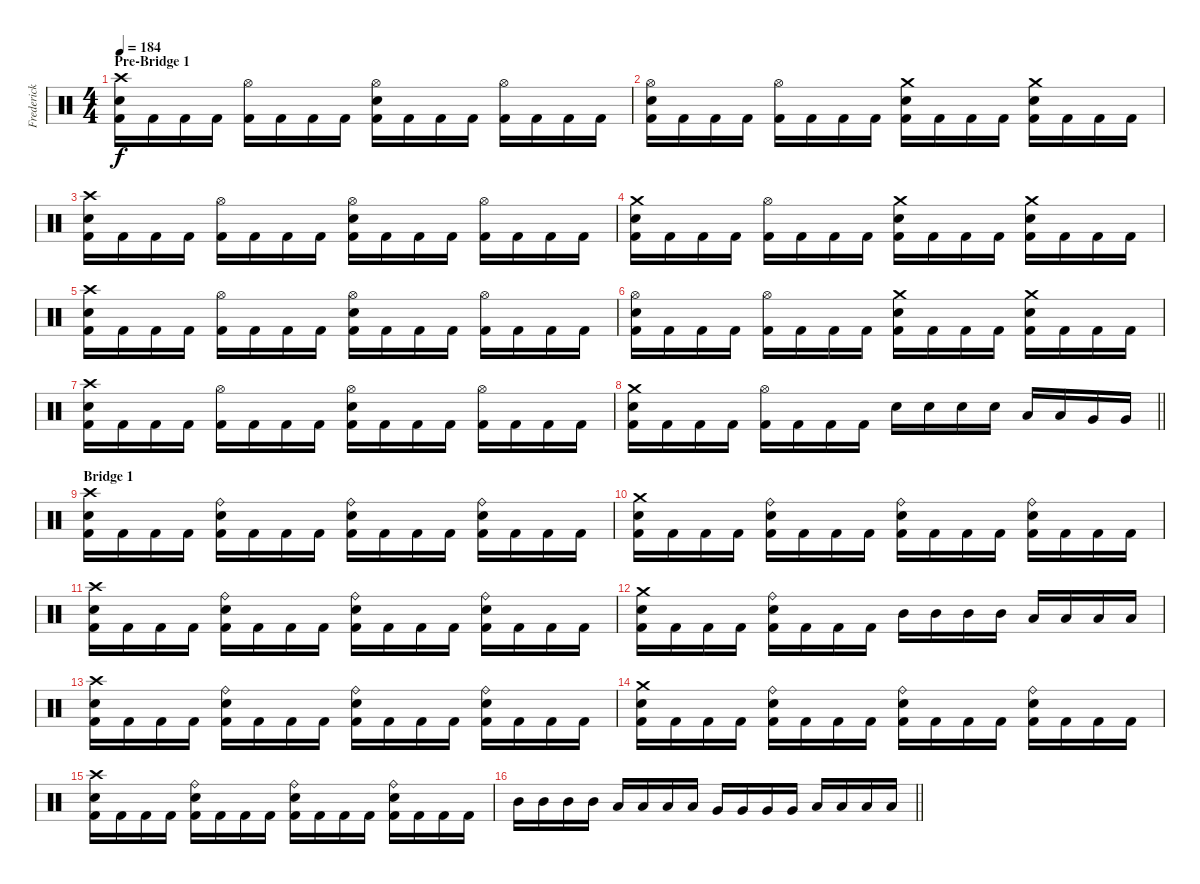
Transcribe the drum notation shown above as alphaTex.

\track ("Frederick Ehmke" "Frederick ") {instrument percussion}
\staff {score}
\articulation defaults
\ts (4 4)
\section ("" "Pre-Bridge 1")
\tempo 184
\clef neutral
\ks c
("Electric Snare (hit)" "Kick (hit) 2" "Crash high (hit)").16{dy f} "Kick (hit) 2".16 "Kick (hit) 2".16 "Kick (hit) 2".16 ("Kick (hit) 2" "Hi-Hat (open)").16 "Kick (hit) 2".16 "Kick (hit) 2".16 "Kick (hit) 2".16 ("Electric Snare (hit)" "Kick (hit) 2" "Hi-Hat (open)").16 "Kick (hit) 2".16 "Kick (hit) 2".16 "Kick (hit) 2".16 ("Kick (hit) 2" "Hi-Hat (open)").16 "Kick (hit) 2".16 "Kick (hit) 2".16 "Kick (hit) 2".16 |
("Electric Snare (hit)" "Kick (hit) 2" "Hi-Hat (open)").16 "Kick (hit) 2".16 "Kick (hit) 2".16 "Kick (hit) 2".16 ("Kick (hit) 2" "Hi-Hat (open)").16 "Kick (hit) 2".16 "Kick (hit) 2".16 "Kick (hit) 2".16 ("Electric Snare (hit)" "Kick (hit) 2" "Crash medium (hit)").16 "Kick (hit) 2".16 "Kick (hit) 2".16 "Kick (hit) 2".16 ("Electric Snare (hit)" "Kick (hit) 2" "Crash medium (hit)").16 "Kick (hit) 2".16 "Kick (hit) 2".16 "Kick (hit) 2".16 |
("Electric Snare (hit)" "Kick (hit) 2" "Crash high (hit)").16 "Kick (hit) 2".16 "Kick (hit) 2".16 "Kick (hit) 2".16 ("Kick (hit) 2" "Hi-Hat (open)").16 "Kick (hit) 2".16 "Kick (hit) 2".16 "Kick (hit) 2".16 ("Electric Snare (hit)" "Kick (hit) 2" "Hi-Hat (open)").16 "Kick (hit) 2".16 "Kick (hit) 2".16 "Kick (hit) 2".16 ("Kick (hit) 2" "Hi-Hat (open)").16 "Kick (hit) 2".16 "Kick (hit) 2".16 "Kick (hit) 2".16 |
("Electric Snare (hit)" "Kick (hit) 2" "Crash medium (hit)").16 "Kick (hit) 2".16 "Kick (hit) 2".16 "Kick (hit) 2".16 ("Kick (hit) 2" "Hi-Hat (open)").16 "Kick (hit) 2".16 "Kick (hit) 2".16 "Kick (hit) 2".16 ("Electric Snare (hit)" "Kick (hit) 2" "Crash medium (hit)").16 "Kick (hit) 2".16 "Kick (hit) 2".16 "Kick (hit) 2".16 ("Electric Snare (hit)" "Kick (hit) 2" "Crash medium (hit)").16 "Kick (hit) 2".16 "Kick (hit) 2".16 "Kick (hit) 2".16 |
("Electric Snare (hit)" "Kick (hit) 2" "Crash high (hit)").16 "Kick (hit) 2".16 "Kick (hit) 2".16 "Kick (hit) 2".16 ("Kick (hit) 2" "Hi-Hat (open)").16 "Kick (hit) 2".16 "Kick (hit) 2".16 "Kick (hit) 2".16 ("Electric Snare (hit)" "Kick (hit) 2" "Hi-Hat (open)").16 "Kick (hit) 2".16 "Kick (hit) 2".16 "Kick (hit) 2".16 ("Kick (hit) 2" "Hi-Hat (open)").16 "Kick (hit) 2".16 "Kick (hit) 2".16 "Kick (hit) 2".16 |
("Electric Snare (hit)" "Kick (hit) 2" "Hi-Hat (open)").16 "Kick (hit) 2".16 "Kick (hit) 2".16 "Kick (hit) 2".16 ("Kick (hit) 2" "Hi-Hat (open)").16 "Kick (hit) 2".16 "Kick (hit) 2".16 "Kick (hit) 2".16 ("Electric Snare (hit)" "Kick (hit) 2" "Crash medium (hit)").16 "Kick (hit) 2".16 "Kick (hit) 2".16 "Kick (hit) 2".16 ("Electric Snare (hit)" "Kick (hit) 2" "Crash medium (hit)").16 "Kick (hit) 2".16 "Kick (hit) 2".16 "Kick (hit) 2".16 |
("Electric Snare (hit)" "Kick (hit) 2" "Crash high (hit)").16 "Kick (hit) 2".16 "Kick (hit) 2".16 "Kick (hit) 2".16 ("Kick (hit) 2" "Hi-Hat (open)").16 "Kick (hit) 2".16 "Kick (hit) 2".16 "Kick (hit) 2".16 ("Electric Snare (hit)" "Kick (hit) 2" "Hi-Hat (open)").16 "Kick (hit) 2".16 "Kick (hit) 2".16 "Kick (hit) 2".16 ("Kick (hit) 2" "Hi-Hat (open)").16 "Kick (hit) 2".16 "Kick (hit) 2".16 "Kick (hit) 2".16 |
\barLineRight lightlight
("Electric Snare (hit)" "Kick (hit) 2" "Crash medium (hit)").16 "Kick (hit) 2".16 "Kick (hit) 2".16 "Kick (hit) 2".16 ("Kick (hit) 2" "Hi-Hat (open)").16 "Kick (hit) 2".16 "Kick (hit) 2".16 "Kick (hit) 2".16 "Electric Snare (hit)".16 "Electric Snare (hit)".16 "Electric Snare (hit)".16 "Electric Snare (hit)".16 "Low Tom (hit)".16 "Low Tom (hit)".16 "Very Low Tom (hit)".16 "Very Low Tom (hit)".16 |
\section ("" "Bridge 1")
("Electric Snare (hit)" "Kick (hit) 2" "Crash high (hit)").16 "Kick (hit) 2".16 "Kick (hit) 2".16 "Kick (hit) 2".16 ("Electric Snare (hit)" "Kick (hit) 2" "Ride (bell)").16 "Kick (hit) 2".16 "Kick (hit) 2".16 "Kick (hit) 2".16 ("Electric Snare (hit)" "Kick (hit) 2" "Ride (bell)").16 "Kick (hit) 2".16 "Kick (hit) 2".16 "Kick (hit) 2".16 ("Electric Snare (hit)" "Kick (hit) 2" "Ride (bell)").16 "Kick (hit) 2".16 "Kick (hit) 2".16 "Kick (hit) 2".16 |
("Electric Snare (hit)" "Kick (hit) 2" "Crash medium (hit)").16 "Kick (hit) 2".16 "Kick (hit) 2".16 "Kick (hit) 2".16 ("Electric Snare (hit)" "Kick (hit) 2" "Ride (bell)").16 "Kick (hit) 2".16 "Kick (hit) 2".16 "Kick (hit) 2".16 ("Electric Snare (hit)" "Kick (hit) 2" "Ride (bell)").16 "Kick (hit) 2".16 "Kick (hit) 2".16 "Kick (hit) 2".16 ("Electric Snare (hit)" "Kick (hit) 2" "Ride (bell)").16 "Kick (hit) 2".16 "Kick (hit) 2".16 "Kick (hit) 2".16 |
("Electric Snare (hit)" "Kick (hit) 2" "Crash high (hit)").16 "Kick (hit) 2".16 "Kick (hit) 2".16 "Kick (hit) 2".16 ("Electric Snare (hit)" "Kick (hit) 2" "Ride (bell)").16 "Kick (hit) 2".16 "Kick (hit) 2".16 "Kick (hit) 2".16 ("Electric Snare (hit)" "Kick (hit) 2" "Ride (bell)").16 "Kick (hit) 2".16 "Kick (hit) 2".16 "Kick (hit) 2".16 ("Electric Snare (hit)" "Kick (hit) 2" "Ride (bell)").16 "Kick (hit) 2".16 "Kick (hit) 2".16 "Kick (hit) 2".16 |
("Electric Snare (hit)" "Kick (hit) 2" "Crash medium (hit)").16 "Kick (hit) 2".16 "Kick (hit) 2".16 "Kick (hit) 2".16 ("Electric Snare (hit)" "Kick (hit) 2" "Ride (bell)").16 "Kick (hit) 2".16 "Kick (hit) 2".16 "Kick (hit) 2".16 "Mid Tom (hit)".16 "Mid Tom (hit)".16 "Mid Tom (hit)".16 "Mid Tom (hit)".16 "Low Tom (hit)".16 "Low Tom (hit)".16 "Low Tom (hit)".16 "Low Tom (hit)".16 |
("Electric Snare (hit)" "Kick (hit) 2" "Crash high (hit)").16 "Kick (hit) 2".16 "Kick (hit) 2".16 "Kick (hit) 2".16 ("Electric Snare (hit)" "Kick (hit) 2" "Ride (bell)").16 "Kick (hit) 2".16 "Kick (hit) 2".16 "Kick (hit) 2".16 ("Electric Snare (hit)" "Kick (hit) 2" "Ride (bell)").16 "Kick (hit) 2".16 "Kick (hit) 2".16 "Kick (hit) 2".16 ("Electric Snare (hit)" "Kick (hit) 2" "Ride (bell)").16 "Kick (hit) 2".16 "Kick (hit) 2".16 "Kick (hit) 2".16 |
("Electric Snare (hit)" "Kick (hit) 2" "Crash medium (hit)").16 "Kick (hit) 2".16 "Kick (hit) 2".16 "Kick (hit) 2".16 ("Electric Snare (hit)" "Kick (hit) 2" "Ride (bell)").16 "Kick (hit) 2".16 "Kick (hit) 2".16 "Kick (hit) 2".16 ("Electric Snare (hit)" "Kick (hit) 2" "Ride (bell)").16 "Kick (hit) 2".16 "Kick (hit) 2".16 "Kick (hit) 2".16 ("Electric Snare (hit)" "Kick (hit) 2" "Ride (bell)").16 "Kick (hit) 2".16 "Kick (hit) 2".16 "Kick (hit) 2".16 |
("Electric Snare (hit)" "Kick (hit) 2" "Crash high (hit)").16 "Kick (hit) 2".16 "Kick (hit) 2".16 "Kick (hit) 2".16 ("Electric Snare (hit)" "Kick (hit) 2" "Ride (bell)").16 "Kick (hit) 2".16 "Kick (hit) 2".16 "Kick (hit) 2".16 ("Electric Snare (hit)" "Kick (hit) 2" "Ride (bell)").16 "Kick (hit) 2".16 "Kick (hit) 2".16 "Kick (hit) 2".16 ("Electric Snare (hit)" "Kick (hit) 2" "Ride (bell)").16 "Kick (hit) 2".16 "Kick (hit) 2".16 "Kick (hit) 2".16 |
\barLineRight lightlight "Mid Tom (hit)".16 "Mid Tom (hit)".16 "Mid Tom (hit)".16 "Mid Tom (hit)".16 "Low Tom (hit)".16 "Low Tom (hit)".16 "Low Tom (hit)".16 "Low Tom (hit)".16 "Very Low Tom (hit)".16 "Very Low Tom (hit)".16 "Very Low Tom (hit)".16 "Very Low Tom (hit)".16 "Low Floor Tom (hit)".16 "Low Floor Tom (hit)".16 "Low Floor Tom (hit)".16 "Low Floor Tom (hit)".16
